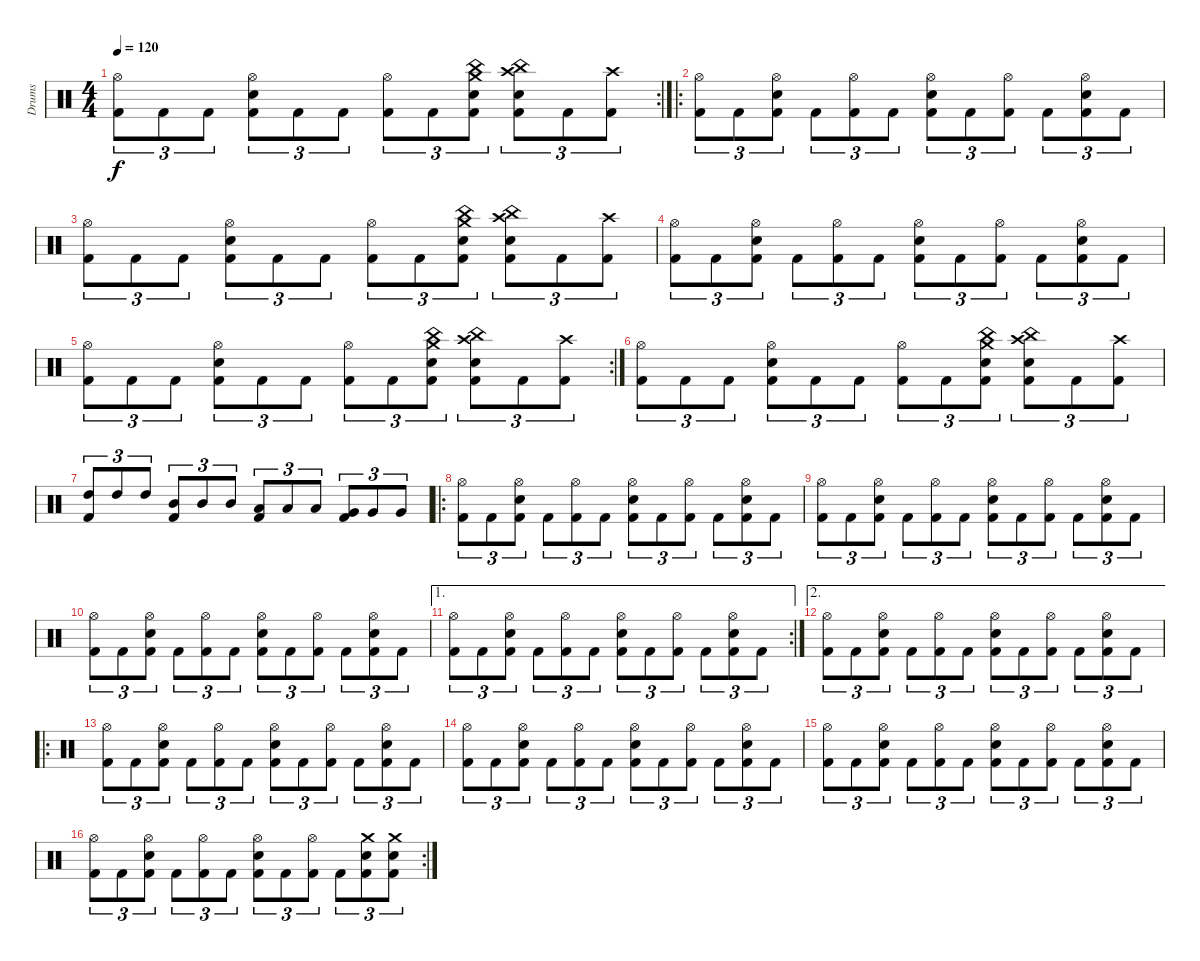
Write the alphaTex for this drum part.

\track ("Drums" "Drums") {instrument percussion}
\staff {score}
\articulation defaults
\rc 2
\ts (4 4)
\tempo 120
\clef neutral
\ks c
("Hi-Hat (open)" "Kick (hit) 2").8{tu (3 2) dy f} "Kick (hit) 2".8{tu (3 2)} "Kick (hit) 2".8{tu (3 2)} ("Hi-Hat (open)" "Snare (hit) 2" "Kick (hit) 2").8{tu (3 2)} "Kick (hit) 2".8{tu (3 2)} "Kick (hit) 2".8{tu (3 2)} ("Hi-Hat (open)" "Kick (hit) 2").8{tu (3 2)} "Kick (hit) 2".8{tu (3 2)} ("China (hit)" "Crash medium (hit)" "Snare (hit) 2" "Kick (hit) 2").8{tu (3 2)} ("China (hit)" "Crash high (hit)" "Snare (hit) 2" "Kick (hit) 2").8{tu (3 2)} "Kick (hit) 2".8{tu (3 2)} ("Crash high (hit)" "Kick (hit) 2").8{tu (3 2)} |
\ro
("Hi-Hat (open)" "Kick (hit) 2").8{tu (3 2)} "Kick (hit) 2".8{tu (3 2)} ("Hi-Hat (open)" "Snare (hit) 2" "Kick (hit) 2").8{tu (3 2)} "Kick (hit) 2".8{tu (3 2)} ("Hi-Hat (open)" "Kick (hit) 2").8{tu (3 2)} "Kick (hit) 2".8{tu (3 2)} ("Hi-Hat (open)" "Snare (hit) 2" "Kick (hit) 2").8{tu (3 2)} "Kick (hit) 2".8{tu (3 2)} ("Hi-Hat (open)" "Kick (hit) 2").8{tu (3 2)} "Kick (hit) 2".8{tu (3 2)} ("Hi-Hat (open)" "Snare (hit) 2" "Kick (hit) 2").8{tu (3 2)} "Kick (hit) 2".8{tu (3 2)} |
("Hi-Hat (open)" "Kick (hit) 2").8{tu (3 2)} "Kick (hit) 2".8{tu (3 2)} "Kick (hit) 2".8{tu (3 2)} ("Hi-Hat (open)" "Snare (hit) 2" "Kick (hit) 2").8{tu (3 2)} "Kick (hit) 2".8{tu (3 2)} "Kick (hit) 2".8{tu (3 2)} ("Hi-Hat (open)" "Kick (hit) 2").8{tu (3 2)} "Kick (hit) 2".8{tu (3 2)} ("China (hit)" "Crash medium (hit)" "Snare (hit) 2" "Kick (hit) 2").8{tu (3 2)} ("China (hit)" "Crash high (hit)" "Snare (hit) 2" "Kick (hit) 2").8{tu (3 2)} "Kick (hit) 2".8{tu (3 2)} ("Crash high (hit)" "Kick (hit) 2").8{tu (3 2)} |
("Hi-Hat (open)" "Kick (hit) 2").8{tu (3 2)} "Kick (hit) 2".8{tu (3 2)} ("Hi-Hat (open)" "Snare (hit) 2" "Kick (hit) 2").8{tu (3 2)} "Kick (hit) 2".8{tu (3 2)} ("Hi-Hat (open)" "Kick (hit) 2").8{tu (3 2)} "Kick (hit) 2".8{tu (3 2)} ("Hi-Hat (open)" "Snare (hit) 2" "Kick (hit) 2").8{tu (3 2)} "Kick (hit) 2".8{tu (3 2)} ("Hi-Hat (open)" "Kick (hit) 2").8{tu (3 2)} "Kick (hit) 2".8{tu (3 2)} ("Hi-Hat (open)" "Snare (hit) 2" "Kick (hit) 2").8{tu (3 2)} "Kick (hit) 2".8{tu (3 2)} |
\rc 2
("Hi-Hat (open)" "Kick (hit) 2").8{tu (3 2)} "Kick (hit) 2".8{tu (3 2)} "Kick (hit) 2".8{tu (3 2)} ("Hi-Hat (open)" "Snare (hit) 2" "Kick (hit) 2").8{tu (3 2)} "Kick (hit) 2".8{tu (3 2)} "Kick (hit) 2".8{tu (3 2)} ("Hi-Hat (open)" "Kick (hit) 2").8{tu (3 2)} "Kick (hit) 2".8{tu (3 2)} ("China (hit)" "Crash medium (hit)" "Snare (hit) 2" "Kick (hit) 2").8{tu (3 2)} ("China (hit)" "Crash high (hit)" "Snare (hit) 2" "Kick (hit) 2").8{tu (3 2)} "Kick (hit) 2".8{tu (3 2)} ("Crash high (hit)" "Kick (hit) 2").8{tu (3 2)} |
("Hi-Hat (open)" "Kick (hit) 2").8{tu (3 2)} "Kick (hit) 2".8{tu (3 2)} "Kick (hit) 2".8{tu (3 2)} ("Hi-Hat (open)" "Snare (hit) 2" "Kick (hit) 2").8{tu (3 2)} "Kick (hit) 2".8{tu (3 2)} "Kick (hit) 2".8{tu (3 2)} ("Hi-Hat (open)" "Kick (hit) 2").8{tu (3 2)} "Kick (hit) 2".8{tu (3 2)} ("China (hit)" "Crash medium (hit)" "Snare (hit) 2" "Kick (hit) 2").8{tu (3 2)} ("China (hit)" "Crash high (hit)" "Snare (hit) 2" "Kick (hit) 2").8{tu (3 2)} "Kick (hit) 2".8{tu (3 2)} ("Crash high (hit)" "Kick (hit) 2").8{tu (3 2)} |
("High Tom (hit)" "Kick (hit) 2").8{tu (3 2)} "High Tom (hit)".8{tu (3 2)} "High Tom (hit)".8{tu (3 2)} ("Mid Tom (hit)" "Kick (hit) 2").8{tu (3 2)} "Mid Tom (hit)".8{tu (3 2)} "Mid Tom (hit)".8{tu (3 2)} ("Low Tom (hit)" "Kick (hit) 2").8{tu (3 2)} "Low Tom (hit)".8{tu (3 2)} "Low Tom (hit)".8{tu (3 2)} ("Very Low Tom (hit)" "Kick (hit) 2").8{tu (3 2)} "Very Low Tom (hit)".8{tu (3 2)} "Very Low Tom (hit)".8{tu (3 2)} |
\ro
("Hi-Hat (open)" "Kick (hit) 2").8{tu (3 2)} "Kick (hit) 2".8{tu (3 2)} ("Hi-Hat (open)" "Snare (hit) 2" "Kick (hit) 2").8{tu (3 2)} "Kick (hit) 2".8{tu (3 2)} ("Hi-Hat (open)" "Kick (hit) 2").8{tu (3 2)} "Kick (hit) 2".8{tu (3 2)} ("Hi-Hat (open)" "Snare (hit) 2" "Kick (hit) 2").8{tu (3 2)} "Kick (hit) 2".8{tu (3 2)} ("Hi-Hat (open)" "Kick (hit) 2").8{tu (3 2)} "Kick (hit) 2".8{tu (3 2)} ("Hi-Hat (open)" "Snare (hit) 2" "Kick (hit) 2").8{tu (3 2)} "Kick (hit) 2".8{tu (3 2)} |
("Hi-Hat (open)" "Kick (hit) 2").8{tu (3 2)} "Kick (hit) 2".8{tu (3 2)} ("Hi-Hat (open)" "Snare (hit) 2" "Kick (hit) 2").8{tu (3 2)} "Kick (hit) 2".8{tu (3 2)} ("Hi-Hat (open)" "Kick (hit) 2").8{tu (3 2)} "Kick (hit) 2".8{tu (3 2)} ("Hi-Hat (open)" "Snare (hit) 2" "Kick (hit) 2").8{tu (3 2)} "Kick (hit) 2".8{tu (3 2)} ("Hi-Hat (open)" "Kick (hit) 2").8{tu (3 2)} "Kick (hit) 2".8{tu (3 2)} ("Hi-Hat (open)" "Snare (hit) 2" "Kick (hit) 2").8{tu (3 2)} "Kick (hit) 2".8{tu (3 2)} |
("Hi-Hat (open)" "Kick (hit) 2").8{tu (3 2)} "Kick (hit) 2".8{tu (3 2)} ("Hi-Hat (open)" "Snare (hit) 2" "Kick (hit) 2").8{tu (3 2)} "Kick (hit) 2".8{tu (3 2)} ("Hi-Hat (open)" "Kick (hit) 2").8{tu (3 2)} "Kick (hit) 2".8{tu (3 2)} ("Hi-Hat (open)" "Snare (hit) 2" "Kick (hit) 2").8{tu (3 2)} "Kick (hit) 2".8{tu (3 2)} ("Hi-Hat (open)" "Kick (hit) 2").8{tu (3 2)} "Kick (hit) 2".8{tu (3 2)} ("Hi-Hat (open)" "Snare (hit) 2" "Kick (hit) 2").8{tu (3 2)} "Kick (hit) 2".8{tu (3 2)} |
\ae 1
\rc 2
("Hi-Hat (open)" "Kick (hit) 2").8{tu (3 2)} "Kick (hit) 2".8{tu (3 2)} ("Hi-Hat (open)" "Snare (hit) 2" "Kick (hit) 2").8{tu (3 2)} "Kick (hit) 2".8{tu (3 2)} ("Hi-Hat (open)" "Kick (hit) 2").8{tu (3 2)} "Kick (hit) 2".8{tu (3 2)} ("Hi-Hat (open)" "Snare (hit) 2" "Kick (hit) 2").8{tu (3 2)} "Kick (hit) 2".8{tu (3 2)} ("Hi-Hat (open)" "Kick (hit) 2").8{tu (3 2)} "Kick (hit) 2".8{tu (3 2)} ("Hi-Hat (open)" "Snare (hit) 2" "Kick (hit) 2").8{tu (3 2)} "Kick (hit) 2".8{tu (3 2)} |
\ae 2
("Hi-Hat (open)" "Kick (hit) 2").8{tu (3 2)} "Kick (hit) 2".8{tu (3 2)} ("Hi-Hat (open)" "Snare (hit) 2" "Kick (hit) 2").8{tu (3 2)} "Kick (hit) 2".8{tu (3 2)} ("Hi-Hat (open)" "Kick (hit) 2").8{tu (3 2)} "Kick (hit) 2".8{tu (3 2)} ("Hi-Hat (open)" "Snare (hit) 2" "Kick (hit) 2").8{tu (3 2)} "Kick (hit) 2".8{tu (3 2)} ("Hi-Hat (open)" "Kick (hit) 2").8{tu (3 2)} "Kick (hit) 2".8{tu (3 2)} ("Hi-Hat (open)" "Snare (hit) 2" "Kick (hit) 2").8{tu (3 2)} "Kick (hit) 2".8{tu (3 2)} |
\ro
("Hi-Hat (open)" "Kick (hit) 2").8{tu (3 2)} "Kick (hit) 2".8{tu (3 2)} ("Hi-Hat (open)" "Snare (hit) 2" "Kick (hit) 2").8{tu (3 2)} "Kick (hit) 2".8{tu (3 2)} ("Hi-Hat (open)" "Kick (hit) 2").8{tu (3 2)} "Kick (hit) 2".8{tu (3 2)} ("Hi-Hat (open)" "Snare (hit) 2" "Kick (hit) 2").8{tu (3 2)} "Kick (hit) 2".8{tu (3 2)} ("Hi-Hat (open)" "Kick (hit) 2").8{tu (3 2)} "Kick (hit) 2".8{tu (3 2)} ("Hi-Hat (open)" "Snare (hit) 2" "Kick (hit) 2").8{tu (3 2)} "Kick (hit) 2".8{tu (3 2)} |
("Hi-Hat (open)" "Kick (hit) 2").8{tu (3 2)} "Kick (hit) 2".8{tu (3 2)} ("Hi-Hat (open)" "Snare (hit) 2" "Kick (hit) 2").8{tu (3 2)} "Kick (hit) 2".8{tu (3 2)} ("Hi-Hat (open)" "Kick (hit) 2").8{tu (3 2)} "Kick (hit) 2".8{tu (3 2)} ("Hi-Hat (open)" "Snare (hit) 2" "Kick (hit) 2").8{tu (3 2)} "Kick (hit) 2".8{tu (3 2)} ("Hi-Hat (open)" "Kick (hit) 2").8{tu (3 2)} "Kick (hit) 2".8{tu (3 2)} ("Hi-Hat (open)" "Snare (hit) 2" "Kick (hit) 2").8{tu (3 2)} "Kick (hit) 2".8{tu (3 2)} |
("Hi-Hat (open)" "Kick (hit) 2").8{tu (3 2)} "Kick (hit) 2".8{tu (3 2)} ("Hi-Hat (open)" "Snare (hit) 2" "Kick (hit) 2").8{tu (3 2)} "Kick (hit) 2".8{tu (3 2)} ("Hi-Hat (open)" "Kick (hit) 2").8{tu (3 2)} "Kick (hit) 2".8{tu (3 2)} ("Hi-Hat (open)" "Snare (hit) 2" "Kick (hit) 2").8{tu (3 2)} "Kick (hit) 2".8{tu (3 2)} ("Hi-Hat (open)" "Kick (hit) 2").8{tu (3 2)} "Kick (hit) 2".8{tu (3 2)} ("Hi-Hat (open)" "Snare (hit) 2" "Kick (hit) 2").8{tu (3 2)} "Kick (hit) 2".8{tu (3 2)} |
\rc 2
("Hi-Hat (open)" "Kick (hit) 2").8{tu (3 2)} "Kick (hit) 2".8{tu (3 2)} ("Hi-Hat (open)" "Snare (hit) 2" "Kick (hit) 2").8{tu (3 2)} "Kick (hit) 2".8{tu (3 2)} ("Hi-Hat (open)" "Kick (hit) 2").8{tu (3 2)} "Kick (hit) 2".8{tu (3 2)} ("Hi-Hat (open)" "Snare (hit) 2" "Kick (hit) 2").8{tu (3 2)} "Kick (hit) 2".8{tu (3 2)} ("Hi-Hat (open)" "Kick (hit) 2").8{tu (3 2)} "Kick (hit) 2".8{tu (3 2)} ("Crash medium (hit)" "Snare (hit) 2" "Kick (hit) 2").8{tu (3 2)} ("Crash medium (hit)" "Snare (hit) 2" "Kick (hit) 2").8{tu (3 2)}
